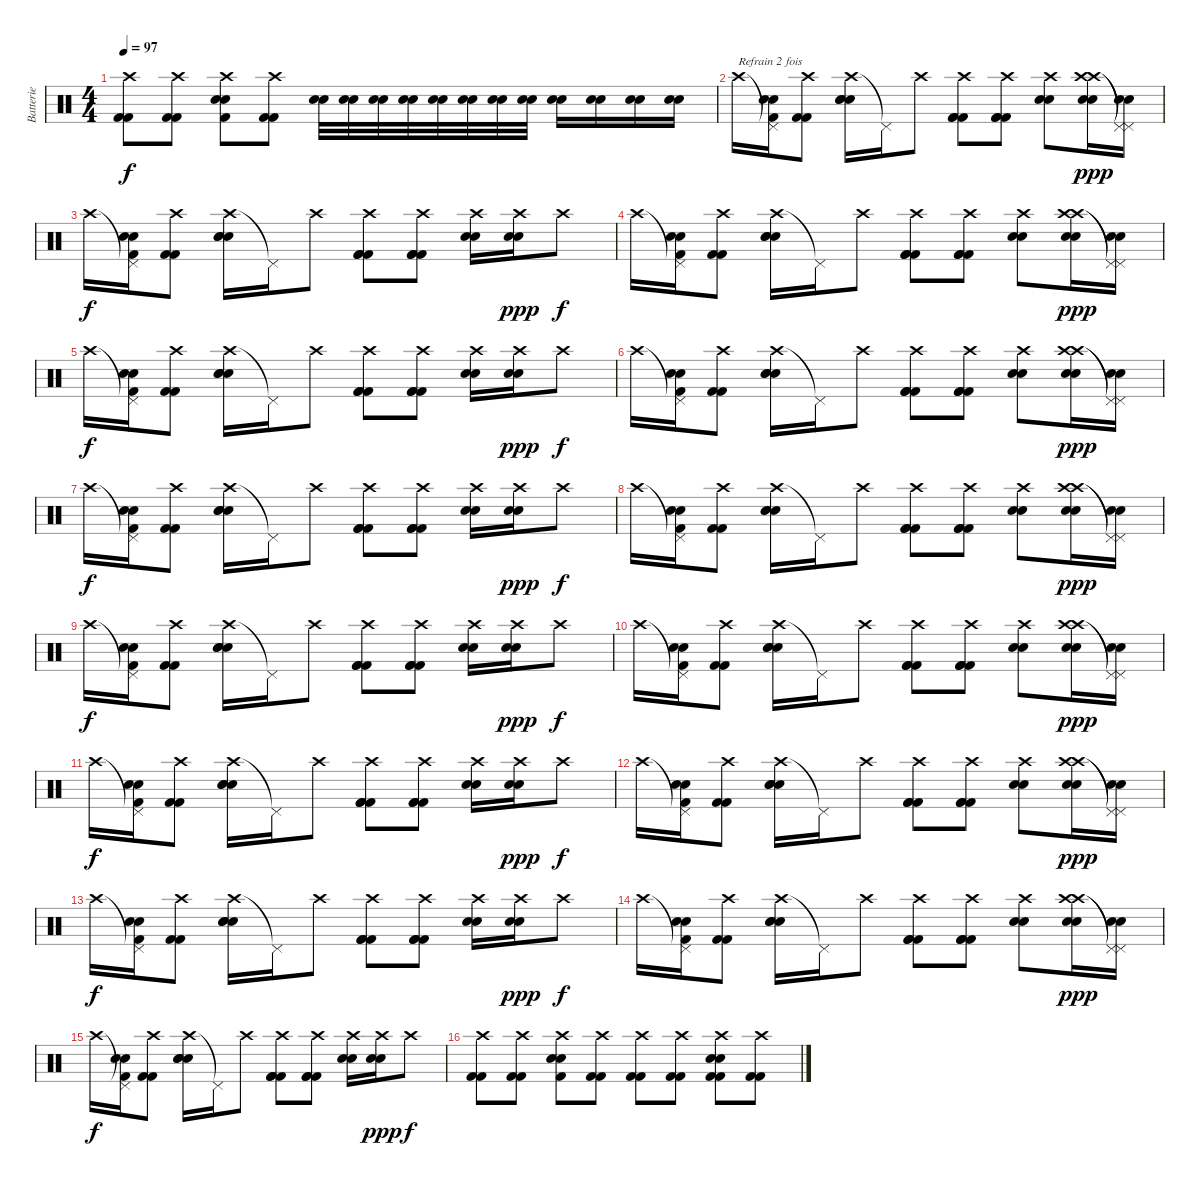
\track ("Batterie" "Batterie") {instrument percussion}
\staff {score}
\articulation defaults
\ts (4 4)
\tempo 97
\clef neutral
\ks c
("Crash high (hit)" "Kick (hit) 2" "Kick (hit) 2").8{dy f} ("Crash high (hit)" "Kick (hit) 2" "Kick (hit) 2").8 ("Crash high (hit)" "Snare (hit) 2" "Snare (hit) 2" "Kick (hit) 2").8 ("Crash high (hit)" "Kick (hit) 2" "Kick (hit) 2").8 ("Snare (hit) 2" "Snare (hit) 2").32 ("Snare (hit) 2" "Snare (hit) 2").32 ("Snare (hit) 2" "Snare (hit) 2").32 ("Snare (hit) 2" "Snare (hit) 2").32 ("Snare (hit) 2" "Snare (hit) 2").32 ("Snare (hit) 2" "Snare (hit) 2").32 ("Snare (hit) 2" "Snare (hit) 2").32 ("Snare (hit) 2" "Snare (hit) 2").32 ("Snare (hit) 2" "Snare (hit) 2").16 ("Snare (hit) 2" "Snare (hit) 2").16 ("Snare (hit) 2" "Snare (hit) 2").16 ("Snare (hit) 2" "Snare (hit) 2").16 |
"Crash high (hit)".16{txt "Refrain 2 fois"} ("Pedal Hi-Hat (hit)"{t} "Snare (hit) 2" "Snare (hit) 2" "Kick (hit) 2").16 ("Crash high (hit)" "Kick (hit) 2" "Kick (hit) 2").8 ("Crash high (hit)" "Snare (hit) 2" "Snare (hit) 2" "Snare (hit) 2").16 "Pedal Hi-Hat (hit)"{t}.16 "Crash high (hit)".8 ("Crash high (hit)" "Kick (hit) 2" "Kick (hit) 2" "Kick (hit) 2").8 ("Crash high (hit)" "Kick (hit) 2" "Kick (hit) 2" "Kick (hit) 2").8 ("Crash high (hit)" "Snare (hit) 2" "Snare (hit) 2").8 ("Crash high (hit)" "Crash high (hit)" "Snare (hit) 2" "Snare (hit) 2").16{dy ppp} ("Pedal Hi-Hat (hit)"{t} "Pedal Hi-Hat (hit)"{t} "Snare (hit) 2" "Snare (hit) 2").16 |
"Crash high (hit)".16{dy f} ("Pedal Hi-Hat (hit)"{t} "Snare (hit) 2" "Snare (hit) 2" "Kick (hit) 2").16 ("Crash high (hit)" "Kick (hit) 2" "Kick (hit) 2").8 ("Crash high (hit)" "Snare (hit) 2" "Snare (hit) 2" "Snare (hit) 2").16 "Pedal Hi-Hat (hit)"{t}.16 "Crash high (hit)".8 ("Crash high (hit)" "Kick (hit) 2" "Kick (hit) 2" "Kick (hit) 2").8 ("Crash high (hit)" "Kick (hit) 2" "Kick (hit) 2" "Kick (hit) 2").8 ("Crash high (hit)" "Snare (hit) 2" "Snare (hit) 2").16 ("Crash high (hit)" "Snare (hit) 2" "Snare (hit) 2").16{dy ppp} "Crash high (hit)".8{dy f} |
"Crash high (hit)".16 ("Pedal Hi-Hat (hit)"{t} "Snare (hit) 2" "Snare (hit) 2" "Kick (hit) 2").16 ("Crash high (hit)" "Kick (hit) 2" "Kick (hit) 2").8 ("Crash high (hit)" "Snare (hit) 2" "Snare (hit) 2" "Snare (hit) 2").16 "Pedal Hi-Hat (hit)"{t}.16 "Crash high (hit)".8 ("Crash high (hit)" "Kick (hit) 2" "Kick (hit) 2" "Kick (hit) 2").8 ("Crash high (hit)" "Kick (hit) 2" "Kick (hit) 2" "Kick (hit) 2").8 ("Crash high (hit)" "Snare (hit) 2" "Snare (hit) 2").8 ("Crash high (hit)" "Crash high (hit)" "Snare (hit) 2" "Snare (hit) 2").16{dy ppp} ("Pedal Hi-Hat (hit)"{t} "Pedal Hi-Hat (hit)"{t} "Snare (hit) 2" "Snare (hit) 2").16 |
"Crash high (hit)".16{dy f} ("Pedal Hi-Hat (hit)"{t} "Snare (hit) 2" "Snare (hit) 2" "Kick (hit) 2").16 ("Crash high (hit)" "Kick (hit) 2" "Kick (hit) 2").8 ("Crash high (hit)" "Snare (hit) 2" "Snare (hit) 2" "Snare (hit) 2").16 "Pedal Hi-Hat (hit)"{t}.16 "Crash high (hit)".8 ("Crash high (hit)" "Kick (hit) 2" "Kick (hit) 2" "Kick (hit) 2").8 ("Crash high (hit)" "Kick (hit) 2" "Kick (hit) 2" "Kick (hit) 2").8 ("Crash high (hit)" "Snare (hit) 2" "Snare (hit) 2").16 ("Crash high (hit)" "Snare (hit) 2" "Snare (hit) 2").16{dy ppp} "Crash high (hit)".8{dy f} |
"Crash high (hit)".16 ("Pedal Hi-Hat (hit)"{t} "Snare (hit) 2" "Snare (hit) 2" "Kick (hit) 2").16 ("Crash high (hit)" "Kick (hit) 2" "Kick (hit) 2").8 ("Crash high (hit)" "Snare (hit) 2" "Snare (hit) 2" "Snare (hit) 2").16 "Pedal Hi-Hat (hit)"{t}.16 "Crash high (hit)".8 ("Crash high (hit)" "Kick (hit) 2" "Kick (hit) 2" "Kick (hit) 2").8 ("Crash high (hit)" "Kick (hit) 2" "Kick (hit) 2" "Kick (hit) 2").8 ("Crash high (hit)" "Snare (hit) 2" "Snare (hit) 2").8 ("Crash high (hit)" "Crash high (hit)" "Snare (hit) 2" "Snare (hit) 2").16{dy ppp} ("Pedal Hi-Hat (hit)"{t} "Pedal Hi-Hat (hit)"{t} "Snare (hit) 2" "Snare (hit) 2").16 |
"Crash high (hit)".16{dy f} ("Pedal Hi-Hat (hit)"{t} "Snare (hit) 2" "Snare (hit) 2" "Kick (hit) 2").16 ("Crash high (hit)" "Kick (hit) 2" "Kick (hit) 2").8 ("Crash high (hit)" "Snare (hit) 2" "Snare (hit) 2" "Snare (hit) 2").16 "Pedal Hi-Hat (hit)"{t}.16 "Crash high (hit)".8 ("Crash high (hit)" "Kick (hit) 2" "Kick (hit) 2" "Kick (hit) 2").8 ("Crash high (hit)" "Kick (hit) 2" "Kick (hit) 2" "Kick (hit) 2").8 ("Crash high (hit)" "Snare (hit) 2" "Snare (hit) 2").16 ("Crash high (hit)" "Snare (hit) 2" "Snare (hit) 2").16{dy ppp} "Crash high (hit)".8{dy f} |
"Crash high (hit)".16 ("Pedal Hi-Hat (hit)"{t} "Snare (hit) 2" "Snare (hit) 2" "Kick (hit) 2").16 ("Crash high (hit)" "Kick (hit) 2" "Kick (hit) 2").8 ("Crash high (hit)" "Snare (hit) 2" "Snare (hit) 2" "Snare (hit) 2").16 "Pedal Hi-Hat (hit)"{t}.16 "Crash high (hit)".8 ("Crash high (hit)" "Kick (hit) 2" "Kick (hit) 2" "Kick (hit) 2").8 ("Crash high (hit)" "Kick (hit) 2" "Kick (hit) 2" "Kick (hit) 2").8 ("Crash high (hit)" "Snare (hit) 2" "Snare (hit) 2").8 ("Crash high (hit)" "Crash high (hit)" "Snare (hit) 2" "Snare (hit) 2").16{dy ppp} ("Pedal Hi-Hat (hit)"{t} "Pedal Hi-Hat (hit)"{t} "Snare (hit) 2" "Snare (hit) 2").16 |
"Crash high (hit)".16{dy f} ("Pedal Hi-Hat (hit)"{t} "Snare (hit) 2" "Snare (hit) 2" "Kick (hit) 2").16 ("Crash high (hit)" "Kick (hit) 2" "Kick (hit) 2").8 ("Crash high (hit)" "Snare (hit) 2" "Snare (hit) 2" "Snare (hit) 2").16 "Pedal Hi-Hat (hit)"{t}.16 "Crash high (hit)".8 ("Crash high (hit)" "Kick (hit) 2" "Kick (hit) 2" "Kick (hit) 2").8 ("Crash high (hit)" "Kick (hit) 2" "Kick (hit) 2" "Kick (hit) 2").8 ("Crash high (hit)" "Snare (hit) 2" "Snare (hit) 2").16 ("Crash high (hit)" "Snare (hit) 2" "Snare (hit) 2").16{dy ppp} "Crash high (hit)".8{dy f} |
"Crash high (hit)".16 ("Pedal Hi-Hat (hit)"{t} "Snare (hit) 2" "Snare (hit) 2" "Kick (hit) 2").16 ("Crash high (hit)" "Kick (hit) 2" "Kick (hit) 2").8 ("Crash high (hit)" "Snare (hit) 2" "Snare (hit) 2" "Snare (hit) 2").16 "Pedal Hi-Hat (hit)"{t}.16 "Crash high (hit)".8 ("Crash high (hit)" "Kick (hit) 2" "Kick (hit) 2" "Kick (hit) 2").8 ("Crash high (hit)" "Kick (hit) 2" "Kick (hit) 2" "Kick (hit) 2").8 ("Crash high (hit)" "Snare (hit) 2" "Snare (hit) 2").8 ("Crash high (hit)" "Crash high (hit)" "Snare (hit) 2" "Snare (hit) 2").16{dy ppp} ("Pedal Hi-Hat (hit)"{t} "Pedal Hi-Hat (hit)"{t} "Snare (hit) 2" "Snare (hit) 2").16 |
"Crash high (hit)".16{dy f} ("Pedal Hi-Hat (hit)"{t} "Snare (hit) 2" "Snare (hit) 2" "Kick (hit) 2").16 ("Crash high (hit)" "Kick (hit) 2" "Kick (hit) 2").8 ("Crash high (hit)" "Snare (hit) 2" "Snare (hit) 2" "Snare (hit) 2").16 "Pedal Hi-Hat (hit)"{t}.16 "Crash high (hit)".8 ("Crash high (hit)" "Kick (hit) 2" "Kick (hit) 2" "Kick (hit) 2").8 ("Crash high (hit)" "Kick (hit) 2" "Kick (hit) 2" "Kick (hit) 2").8 ("Crash high (hit)" "Snare (hit) 2" "Snare (hit) 2").16 ("Crash high (hit)" "Snare (hit) 2" "Snare (hit) 2").16{dy ppp} "Crash high (hit)".8{dy f} |
"Crash high (hit)".16 ("Pedal Hi-Hat (hit)"{t} "Snare (hit) 2" "Snare (hit) 2" "Kick (hit) 2").16 ("Crash high (hit)" "Kick (hit) 2" "Kick (hit) 2").8 ("Crash high (hit)" "Snare (hit) 2" "Snare (hit) 2" "Snare (hit) 2").16 "Pedal Hi-Hat (hit)"{t}.16 "Crash high (hit)".8 ("Crash high (hit)" "Kick (hit) 2" "Kick (hit) 2" "Kick (hit) 2").8 ("Crash high (hit)" "Kick (hit) 2" "Kick (hit) 2" "Kick (hit) 2").8 ("Crash high (hit)" "Snare (hit) 2" "Snare (hit) 2").8 ("Crash high (hit)" "Crash high (hit)" "Snare (hit) 2" "Snare (hit) 2").16{dy ppp} ("Pedal Hi-Hat (hit)"{t} "Pedal Hi-Hat (hit)"{t} "Snare (hit) 2" "Snare (hit) 2").16 |
"Crash high (hit)".16{dy f} ("Pedal Hi-Hat (hit)"{t} "Snare (hit) 2" "Snare (hit) 2" "Kick (hit) 2").16 ("Crash high (hit)" "Kick (hit) 2" "Kick (hit) 2").8 ("Crash high (hit)" "Snare (hit) 2" "Snare (hit) 2" "Snare (hit) 2").16 "Pedal Hi-Hat (hit)"{t}.16 "Crash high (hit)".8 ("Crash high (hit)" "Kick (hit) 2" "Kick (hit) 2" "Kick (hit) 2").8 ("Crash high (hit)" "Kick (hit) 2" "Kick (hit) 2" "Kick (hit) 2").8 ("Crash high (hit)" "Snare (hit) 2" "Snare (hit) 2").16 ("Crash high (hit)" "Snare (hit) 2" "Snare (hit) 2").16{dy ppp} "Crash high (hit)".8{dy f} |
"Crash high (hit)".16 ("Pedal Hi-Hat (hit)"{t} "Snare (hit) 2" "Snare (hit) 2" "Kick (hit) 2").16 ("Crash high (hit)" "Kick (hit) 2" "Kick (hit) 2").8 ("Crash high (hit)" "Snare (hit) 2" "Snare (hit) 2" "Snare (hit) 2").16 "Pedal Hi-Hat (hit)"{t}.16 "Crash high (hit)".8 ("Crash high (hit)" "Kick (hit) 2" "Kick (hit) 2" "Kick (hit) 2").8 ("Crash high (hit)" "Kick (hit) 2" "Kick (hit) 2" "Kick (hit) 2").8 ("Crash high (hit)" "Snare (hit) 2" "Snare (hit) 2").8 ("Crash high (hit)" "Crash high (hit)" "Snare (hit) 2" "Snare (hit) 2").16{dy ppp} ("Pedal Hi-Hat (hit)"{t} "Pedal Hi-Hat (hit)"{t} "Snare (hit) 2" "Snare (hit) 2").16 |
"Crash high (hit)".16{dy f} ("Pedal Hi-Hat (hit)"{t} "Snare (hit) 2" "Snare (hit) 2" "Kick (hit) 2").16 ("Crash high (hit)" "Kick (hit) 2" "Kick (hit) 2").8 ("Crash high (hit)" "Snare (hit) 2" "Snare (hit) 2" "Snare (hit) 2").16 "Pedal Hi-Hat (hit)"{t}.16 "Crash high (hit)".8 ("Crash high (hit)" "Kick (hit) 2" "Kick (hit) 2" "Kick (hit) 2").8 ("Crash high (hit)" "Kick (hit) 2" "Kick (hit) 2" "Kick (hit) 2").8 ("Crash high (hit)" "Snare (hit) 2" "Snare (hit) 2").16 ("Crash high (hit)" "Snare (hit) 2" "Snare (hit) 2").16{dy ppp} "Crash high (hit)".8{dy f} |
("Crash high (hit)" "Kick (hit) 2" "Kick (hit) 2").8 ("Crash high (hit)" "Kick (hit) 2" "Kick (hit) 2").8 ("Crash high (hit)" "Snare (hit) 2" "Snare (hit) 2" "Kick (hit) 2").8 ("Crash high (hit)" "Kick (hit) 2" "Kick (hit) 2").8 ("Crash high (hit)" "Kick (hit) 2" "Kick (hit) 2").8 ("Crash high (hit)" "Kick (hit) 2" "Kick (hit) 2").8 ("Crash high (hit)" "Snare (hit) 2" "Snare (hit) 2" "Kick (hit) 2" "Kick (hit) 2").8 ("Crash high (hit)" "Kick (hit) 2" "Kick (hit) 2").8
